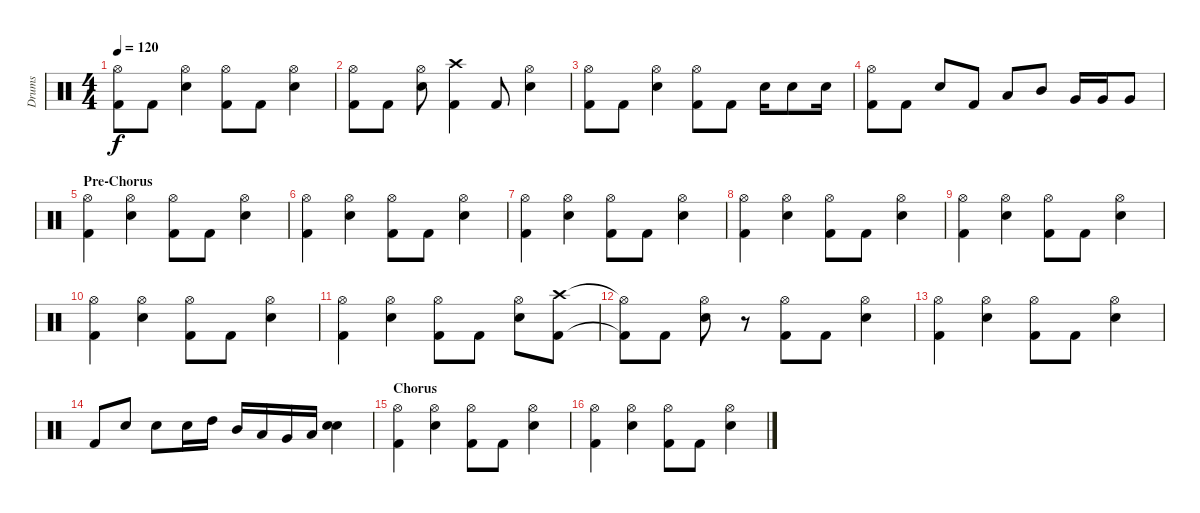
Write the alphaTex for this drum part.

\track ("Drums" "Drums") {instrument percussion}
\staff {score}
\articulation defaults
\ts (4 4)
\tempo 120
\clef neutral
\ks c
("Hi-Hat (open)" "Kick (hit) 2").8{dy f} "Kick (hit) 2".8 ("Hi-Hat (open)" "Electric Snare (hit)").4 ("Hi-Hat (open)" "Kick (hit) 2").8 "Kick (hit) 2".8 ("Hi-Hat (open)" "Electric Snare (hit)").4 |
("Hi-Hat (open)" "Kick (hit) 2").8 "Kick (hit) 2".8 ("Hi-Hat (open)" "Electric Snare (hit)").8 ("Crash high (hit)" "Kick (hit) 2").4 "Kick (hit) 2".8 ("Hi-Hat (open)" "Electric Snare (hit)").4 |
("Hi-Hat (open)" "Kick (hit) 2").8 "Kick (hit) 2".8 ("Hi-Hat (open)" "Electric Snare (hit)").4 ("Hi-Hat (open)" "Kick (hit) 2").8 "Kick (hit) 2".8 "Electric Snare (hit)".16 "Electric Snare (hit)".8 "Electric Snare (hit)".16 |
("Hi-Hat (open)" "Kick (hit) 2").8 "Kick (hit) 2".8 "Electric Snare (hit)".8 "Kick (hit) 2".8 "Low Tom (hit)".8 "Mid Tom (hit)".8 "Very Low Tom (hit)".16 "Very Low Tom (hit)".16 "Very Low Tom (hit)".8 |
\section ("" "Pre-Chorus")
("Hi-Hat (open)" "Kick (hit) 2").4 ("Hi-Hat (open)" "Electric Snare (hit)").4 ("Hi-Hat (open)" "Kick (hit) 2").8 "Kick (hit) 2".8 ("Hi-Hat (open)" "Electric Snare (hit)").4 |
("Hi-Hat (open)" "Kick (hit) 2").4 ("Hi-Hat (open)" "Electric Snare (hit)").4 ("Hi-Hat (open)" "Kick (hit) 2").8 "Kick (hit) 2".8 ("Hi-Hat (open)" "Electric Snare (hit)").4 |
("Hi-Hat (open)" "Kick (hit) 2").4 ("Hi-Hat (open)" "Electric Snare (hit)").4 ("Hi-Hat (open)" "Kick (hit) 2").8 "Kick (hit) 2".8 ("Hi-Hat (open)" "Electric Snare (hit)").4 |
("Hi-Hat (open)" "Kick (hit) 2").4 ("Hi-Hat (open)" "Electric Snare (hit)").4 ("Hi-Hat (open)" "Kick (hit) 2").8 "Kick (hit) 2".8 ("Hi-Hat (open)" "Electric Snare (hit)").4 |
("Hi-Hat (open)" "Kick (hit) 2").4 ("Hi-Hat (open)" "Electric Snare (hit)").4 ("Hi-Hat (open)" "Kick (hit) 2").8 "Kick (hit) 2".8 ("Hi-Hat (open)" "Electric Snare (hit)").4 |
("Hi-Hat (open)" "Kick (hit) 2").4 ("Hi-Hat (open)" "Electric Snare (hit)").4 ("Hi-Hat (open)" "Kick (hit) 2").8 "Kick (hit) 2".8 ("Hi-Hat (open)" "Electric Snare (hit)").4 |
("Hi-Hat (open)" "Kick (hit) 2").4 ("Hi-Hat (open)" "Electric Snare (hit)").4 ("Hi-Hat (open)" "Kick (hit) 2").8 "Kick (hit) 2".8 ("Hi-Hat (open)" "Electric Snare (hit)").8 ("Crash high (hit)" "Kick (hit) 2").8 |
("Hi-Hat (open)"{t} "Kick (hit) 2"{t}).8 "Kick (hit) 2".8 ("Hi-Hat (open)" "Electric Snare (hit)").8 r.8 ("Hi-Hat (open)" "Kick (hit) 2").8 "Kick (hit) 2".8 ("Hi-Hat (open)" "Electric Snare (hit)").4 |
("Hi-Hat (open)" "Kick (hit) 2").4 ("Hi-Hat (open)" "Electric Snare (hit)").4 ("Hi-Hat (open)" "Kick (hit) 2").8 "Kick (hit) 2".8 ("Hi-Hat (open)" "Electric Snare (hit)").4 |
"Kick (hit) 2".8 "Electric Snare (hit)".8 "Electric Snare (hit)".8 "Electric Snare (hit)".16 "High Tom (hit)".16 "Mid Tom (hit)".16 "Low Tom (hit)".16 "Very Low Tom (hit)".16 "Low Floor Tom (hit)".16 ("Electric Snare (hit)" "Electric Snare (hit)").4{bu 120} |
\section ("" "Chorus")
("Hi-Hat (open)" "Kick (hit) 2").4 ("Hi-Hat (open)" "Electric Snare (hit)").4 ("Hi-Hat (open)" "Kick (hit) 2").8 "Kick (hit) 2".8 ("Hi-Hat (open)" "Electric Snare (hit)").4 |
("Hi-Hat (open)" "Kick (hit) 2").4 ("Hi-Hat (open)" "Electric Snare (hit)").4 ("Hi-Hat (open)" "Kick (hit) 2").8 "Kick (hit) 2".8 ("Hi-Hat (open)" "Electric Snare (hit)").4
